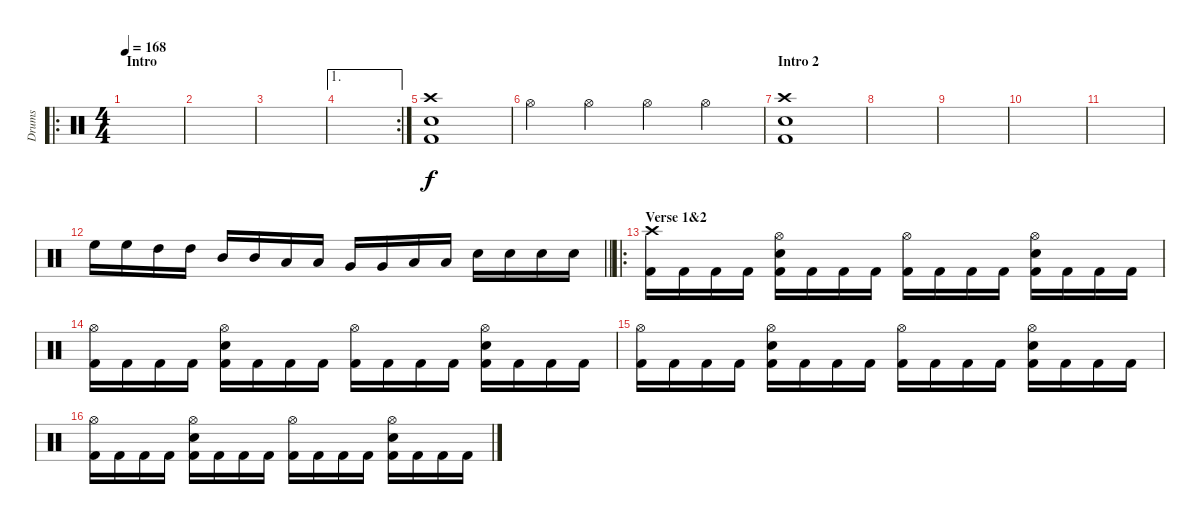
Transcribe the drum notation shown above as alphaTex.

\track ("Drums" "Drums") {instrument percussion}
\staff {score}
\articulation defaults
\ro
\ts (4 4)
\section ("" "Intro")
\tempo 168
\clef neutral
\ks c
|
|
|
\ae 1
\rc 2
|
("Crash high (hit)" "Kick (hit) 2" "Electric Snare (hit)").1 |
"Hi-Hat (open)".4 "Hi-Hat (open)".4 "Hi-Hat (open)".4 "Hi-Hat (open)".4 |
\section ("" "Intro 2")
("Crash high (hit)" "Kick (hit) 2" "Electric Snare (hit)").1 |
|
|
|
|
\barLineRight lightlight "High Floor Tom (hit)".16 "High Floor Tom (hit)".16 "High Tom (hit)".16 "High Tom (hit)".16 "Mid Tom (hit)".16 "Mid Tom (hit)".16 "Low Tom (hit)".16 "Low Tom (hit)".16 "Very Low Tom (hit)".16 "Very Low Tom (hit)".16 "Low Floor Tom (hit)".16 "Low Floor Tom (hit)".16 "Electric Snare (hit)".16 "Electric Snare (hit)".16 "Electric Snare (hit)".16 "Electric Snare (hit)".16
|
\ro
\section ("" "Verse 1&2")
("Crash high (hit)" "Kick (hit) 2").16 "Kick (hit) 2".16 "Kick (hit) 2".16 "Kick (hit) 2".16 ("Hi-Hat (open)" "Electric Snare (hit)" "Kick (hit) 2").16 "Kick (hit) 2".16 "Kick (hit) 2".16 "Kick (hit) 2".16 ("Hi-Hat (open)" "Kick (hit) 2").16 "Kick (hit) 2".16 "Kick (hit) 2".16 "Kick (hit) 2".16 ("Hi-Hat (open)" "Electric Snare (hit)" "Kick (hit) 2").16 "Kick (hit) 2".16 "Kick (hit) 2".16 "Kick (hit) 2".16 |
("Hi-Hat (open)" "Kick (hit) 2").16 "Kick (hit) 2".16 "Kick (hit) 2".16 "Kick (hit) 2".16 ("Hi-Hat (open)" "Electric Snare (hit)" "Kick (hit) 2").16 "Kick (hit) 2".16 "Kick (hit) 2".16 "Kick (hit) 2".16 ("Hi-Hat (open)" "Kick (hit) 2").16 "Kick (hit) 2".16 "Kick (hit) 2".16 "Kick (hit) 2".16 ("Hi-Hat (open)" "Electric Snare (hit)" "Kick (hit) 2").16 "Kick (hit) 2".16 "Kick (hit) 2".16 "Kick (hit) 2".16 |
("Hi-Hat (open)" "Kick (hit) 2").16 "Kick (hit) 2".16 "Kick (hit) 2".16 "Kick (hit) 2".16 ("Hi-Hat (open)" "Electric Snare (hit)" "Kick (hit) 2").16 "Kick (hit) 2".16 "Kick (hit) 2".16 "Kick (hit) 2".16 ("Hi-Hat (open)" "Kick (hit) 2").16 "Kick (hit) 2".16 "Kick (hit) 2".16 "Kick (hit) 2".16 ("Hi-Hat (open)" "Electric Snare (hit)" "Kick (hit) 2").16 "Kick (hit) 2".16 "Kick (hit) 2".16 "Kick (hit) 2".16 |
("Hi-Hat (open)" "Kick (hit) 2").16 "Kick (hit) 2".16 "Kick (hit) 2".16 "Kick (hit) 2".16 ("Hi-Hat (open)" "Electric Snare (hit)" "Kick (hit) 2").16 "Kick (hit) 2".16 "Kick (hit) 2".16 "Kick (hit) 2".16 ("Hi-Hat (open)" "Kick (hit) 2").16 "Kick (hit) 2".16 "Kick (hit) 2".16 "Kick (hit) 2".16 ("Hi-Hat (open)" "Electric Snare (hit)" "Kick (hit) 2").16 "Kick (hit) 2".16 "Kick (hit) 2".16 "Kick (hit) 2".16
